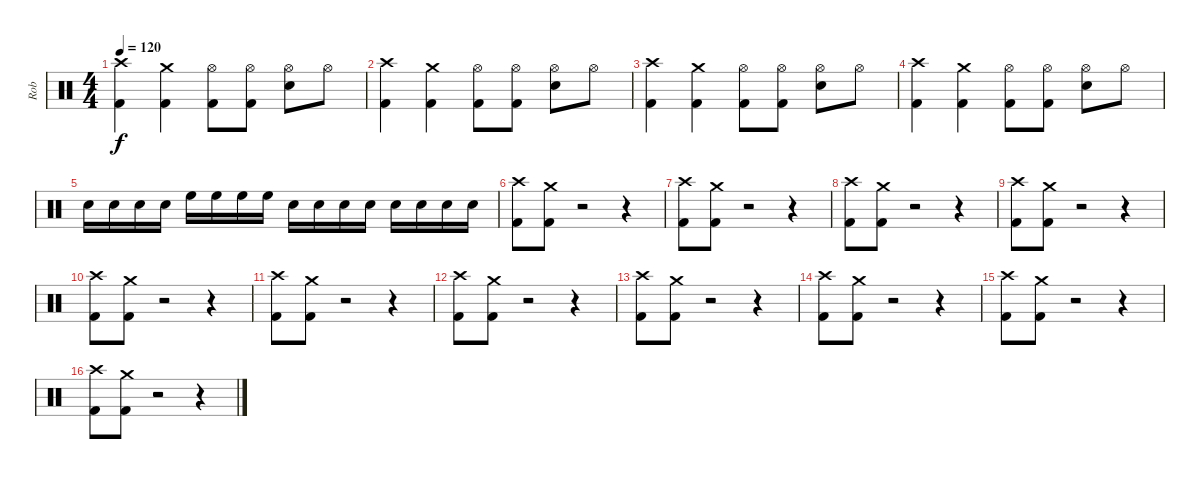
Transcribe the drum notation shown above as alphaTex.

\track ("Rob" "Rob") {instrument percussion}
\staff {score}
\articulation defaults
\ts (4 4)
\tempo 120
\clef neutral
\ks c
("Crash high (hit)" "Kick (hit) 2").4{dy f} ("Crash medium (hit)" "Kick (hit) 2").4 ("Hi-Hat (open)" "Kick (hit) 2").8 ("Hi-Hat (open)" "Kick (hit) 2").8 ("Hi-Hat (open)" "Snare (hit) 2").8 "Hi-Hat (open)".8 |
("Crash high (hit)" "Kick (hit) 2").4 ("Crash medium (hit)" "Kick (hit) 2").4 ("Hi-Hat (open)" "Kick (hit) 2").8 ("Hi-Hat (open)" "Kick (hit) 2").8 ("Hi-Hat (open)" "Snare (hit) 2").8 "Hi-Hat (open)".8 |
("Crash high (hit)" "Kick (hit) 2").4 ("Crash medium (hit)" "Kick (hit) 2").4 ("Hi-Hat (open)" "Kick (hit) 2").8 ("Hi-Hat (open)" "Kick (hit) 2").8 ("Hi-Hat (open)" "Snare (hit) 2").8 "Hi-Hat (open)".8 |
("Crash high (hit)" "Kick (hit) 2").4 ("Crash medium (hit)" "Kick (hit) 2").4 ("Hi-Hat (open)" "Kick (hit) 2").8 ("Hi-Hat (open)" "Kick (hit) 2").8 ("Hi-Hat (open)" "Snare (hit) 2").8 "Hi-Hat (open)".8 |
"Electric Snare (hit)".16 "Electric Snare (hit)".16 "Electric Snare (hit)".16 "Electric Snare (hit)".16 "High Floor Tom (hit)".16 "High Floor Tom (hit)".16 "High Floor Tom (hit)".16 "High Floor Tom (hit)".16 "Electric Snare (hit)".16 "Electric Snare (hit)".16 "Electric Snare (hit)".16 "Electric Snare (hit)".16 "Electric Snare (hit)".16 "Electric Snare (hit)".16 "Electric Snare (hit)".16 "Electric Snare (hit)".16 |
("Crash high (hit)" "Kick (hit) 2").8 ("Crash medium (hit)" "Kick (hit) 2").8 r.2 r.4 |
("Crash high (hit)" "Kick (hit) 2").8 ("Crash medium (hit)" "Kick (hit) 2").8 r.2 r.4 |
("Crash high (hit)" "Kick (hit) 2").8 ("Crash medium (hit)" "Kick (hit) 2").8 r.2 r.4 |
("Crash high (hit)" "Kick (hit) 2").8 ("Crash medium (hit)" "Kick (hit) 2").8 r.2 r.4 |
("Crash high (hit)" "Kick (hit) 2").8 ("Crash medium (hit)" "Kick (hit) 2").8 r.2 r.4 |
("Crash high (hit)" "Kick (hit) 2").8 ("Crash medium (hit)" "Kick (hit) 2").8 r.2 r.4 |
("Crash high (hit)" "Kick (hit) 2").8 ("Crash medium (hit)" "Kick (hit) 2").8 r.2 r.4 |
("Crash high (hit)" "Kick (hit) 2").8 ("Crash medium (hit)" "Kick (hit) 2").8 r.2 r.4 |
("Crash high (hit)" "Kick (hit) 2").8 ("Crash medium (hit)" "Kick (hit) 2").8 r.2 r.4 |
("Crash high (hit)" "Kick (hit) 2").8 ("Crash medium (hit)" "Kick (hit) 2").8 r.2 r.4 |
("Crash high (hit)" "Kick (hit) 2").8 ("Crash medium (hit)" "Kick (hit) 2").8 r.2 r.4
